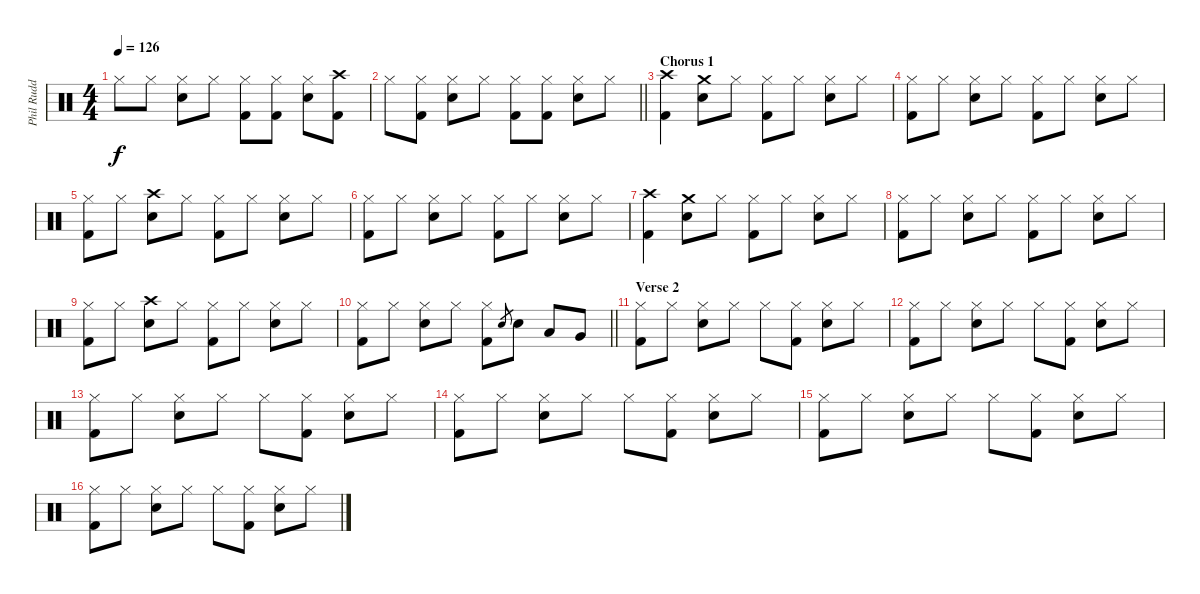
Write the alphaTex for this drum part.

\track ("Phil Rudd (Drums)" "Phil Rudd ") {instrument percussion}
\staff {score}
\articulation defaults
\ts (4 4)
\tempo 126
\clef neutral
\ks c "Hi-Hat (closed)".8{dy f} "Hi-Hat (closed)".8
("Hi-Hat (closed)" "Snare (hit) 2").8 "Hi-Hat (closed)".8 ("Hi-Hat (closed)" "Kick (hit) 2").8 ("Hi-Hat (closed)" "Kick (hit) 2").8 ("Hi-Hat (closed)" "Snare (hit) 2").8 ("Crash high (hit)" "Kick (hit) 2").8 |
\barLineRight lightlight "Hi-Hat (closed)".8
("Hi-Hat (closed)" "Kick (hit) 2").8 ("Hi-Hat (closed)" "Snare (hit) 2").8 "Hi-Hat (closed)".8 ("Hi-Hat (closed)" "Kick (hit) 2").8 ("Hi-Hat (closed)" "Kick (hit) 2").8 ("Hi-Hat (closed)" "Snare (hit) 2").8 "Hi-Hat (closed)".8 |
\section ("" "Chorus 1")
("Crash high (hit)" "Kick (hit) 2").4 ("Crash medium (hit)" "Snare (hit) 2").8 "Hi-Hat (closed)".8 ("Hi-Hat (closed)" "Kick (hit) 2").8 "Hi-Hat (closed)".8 ("Hi-Hat (closed)" "Snare (hit) 2").8 "Hi-Hat (closed)".8 |
("Hi-Hat (closed)" "Kick (hit) 2").8 "Hi-Hat (closed)".8 ("Hi-Hat (closed)" "Snare (hit) 2").8 "Hi-Hat (closed)".8 ("Hi-Hat (closed)" "Kick (hit) 2").8 "Hi-Hat (closed)".8 ("Hi-Hat (closed)" "Snare (hit) 2").8 "Hi-Hat (closed)".8 |
("Hi-Hat (closed)" "Kick (hit) 2").8 "Hi-Hat (closed)".8 ("Crash high (hit)" "Snare (hit) 2").8 "Hi-Hat (closed)".8 ("Hi-Hat (closed)" "Kick (hit) 2").8 "Hi-Hat (closed)".8 ("Hi-Hat (closed)" "Snare (hit) 2").8 "Hi-Hat (closed)".8 |
("Hi-Hat (closed)" "Kick (hit) 2").8 "Hi-Hat (closed)".8 ("Hi-Hat (closed)" "Snare (hit) 2").8 "Hi-Hat (closed)".8 ("Hi-Hat (closed)" "Kick (hit) 2").8 "Hi-Hat (closed)".8 ("Hi-Hat (closed)" "Snare (hit) 2").8 "Hi-Hat (closed)".8 |
("Crash high (hit)" "Kick (hit) 2").4 ("Crash medium (hit)" "Snare (hit) 2").8 "Hi-Hat (closed)".8 ("Hi-Hat (closed)" "Kick (hit) 2").8 "Hi-Hat (closed)".8 ("Hi-Hat (closed)" "Snare (hit) 2").8 "Hi-Hat (closed)".8 |
("Hi-Hat (closed)" "Kick (hit) 2").8 "Hi-Hat (closed)".8 ("Hi-Hat (closed)" "Snare (hit) 2").8 "Hi-Hat (closed)".8 ("Hi-Hat (closed)" "Kick (hit) 2").8 "Hi-Hat (closed)".8 ("Hi-Hat (closed)" "Snare (hit) 2").8 "Hi-Hat (closed)".8 |
("Hi-Hat (closed)" "Kick (hit) 2").8 "Hi-Hat (closed)".8 ("Crash high (hit)" "Snare (hit) 2").8 "Hi-Hat (closed)".8 ("Hi-Hat (closed)" "Kick (hit) 2").8 "Hi-Hat (closed)".8 ("Hi-Hat (closed)" "Snare (hit) 2").8 "Hi-Hat (closed)".8 |
\barLineRight lightlight
("Hi-Hat (closed)" "Kick (hit) 2").8 "Hi-Hat (closed)".8 ("Hi-Hat (closed)" "Snare (hit) 2").8 "Hi-Hat (closed)".8 ("Hi-Hat (closed)" "Kick (hit) 2").8 "Snare (hit) 2".8{gr} "Snare (hit) 2".8 "Low Tom (hit)".8 "Very Low Tom (hit)".8 |
\section ("" "Verse 2")
("Hi-Hat (closed)" "Kick (hit) 2").8 "Hi-Hat (closed)".8 ("Hi-Hat (closed)" "Snare (hit) 2").8 "Hi-Hat (closed)".8 "Hi-Hat (closed)".8 ("Hi-Hat (closed)" "Kick (hit) 2").8 ("Hi-Hat (closed)" "Snare (hit) 2").8 "Hi-Hat (closed)".8 |
("Hi-Hat (closed)" "Kick (hit) 2").8 "Hi-Hat (closed)".8 ("Hi-Hat (closed)" "Snare (hit) 2").8 "Hi-Hat (closed)".8 "Hi-Hat (closed)".8 ("Hi-Hat (closed)" "Kick (hit) 2").8 ("Hi-Hat (closed)" "Snare (hit) 2").8 "Hi-Hat (closed)".8 |
("Hi-Hat (closed)" "Kick (hit) 2").8 "Hi-Hat (closed)".8 ("Hi-Hat (closed)" "Snare (hit) 2").8 "Hi-Hat (closed)".8 "Hi-Hat (closed)".8 ("Hi-Hat (closed)" "Kick (hit) 2").8 ("Hi-Hat (closed)" "Snare (hit) 2").8 "Hi-Hat (closed)".8 |
("Hi-Hat (closed)" "Kick (hit) 2").8 "Hi-Hat (closed)".8 ("Hi-Hat (closed)" "Snare (hit) 2").8 "Hi-Hat (closed)".8 "Hi-Hat (closed)".8 ("Hi-Hat (closed)" "Kick (hit) 2").8 ("Hi-Hat (closed)" "Snare (hit) 2").8 "Hi-Hat (closed)".8 |
("Hi-Hat (closed)" "Kick (hit) 2").8 "Hi-Hat (closed)".8 ("Hi-Hat (closed)" "Snare (hit) 2").8 "Hi-Hat (closed)".8 "Hi-Hat (closed)".8 ("Hi-Hat (closed)" "Kick (hit) 2").8 ("Hi-Hat (closed)" "Snare (hit) 2").8 "Hi-Hat (closed)".8 |
("Hi-Hat (closed)" "Kick (hit) 2").8 "Hi-Hat (closed)".8 ("Hi-Hat (closed)" "Snare (hit) 2").8 "Hi-Hat (closed)".8 "Hi-Hat (closed)".8 ("Hi-Hat (closed)" "Kick (hit) 2").8 ("Hi-Hat (closed)" "Snare (hit) 2").8 "Hi-Hat (closed)".8
